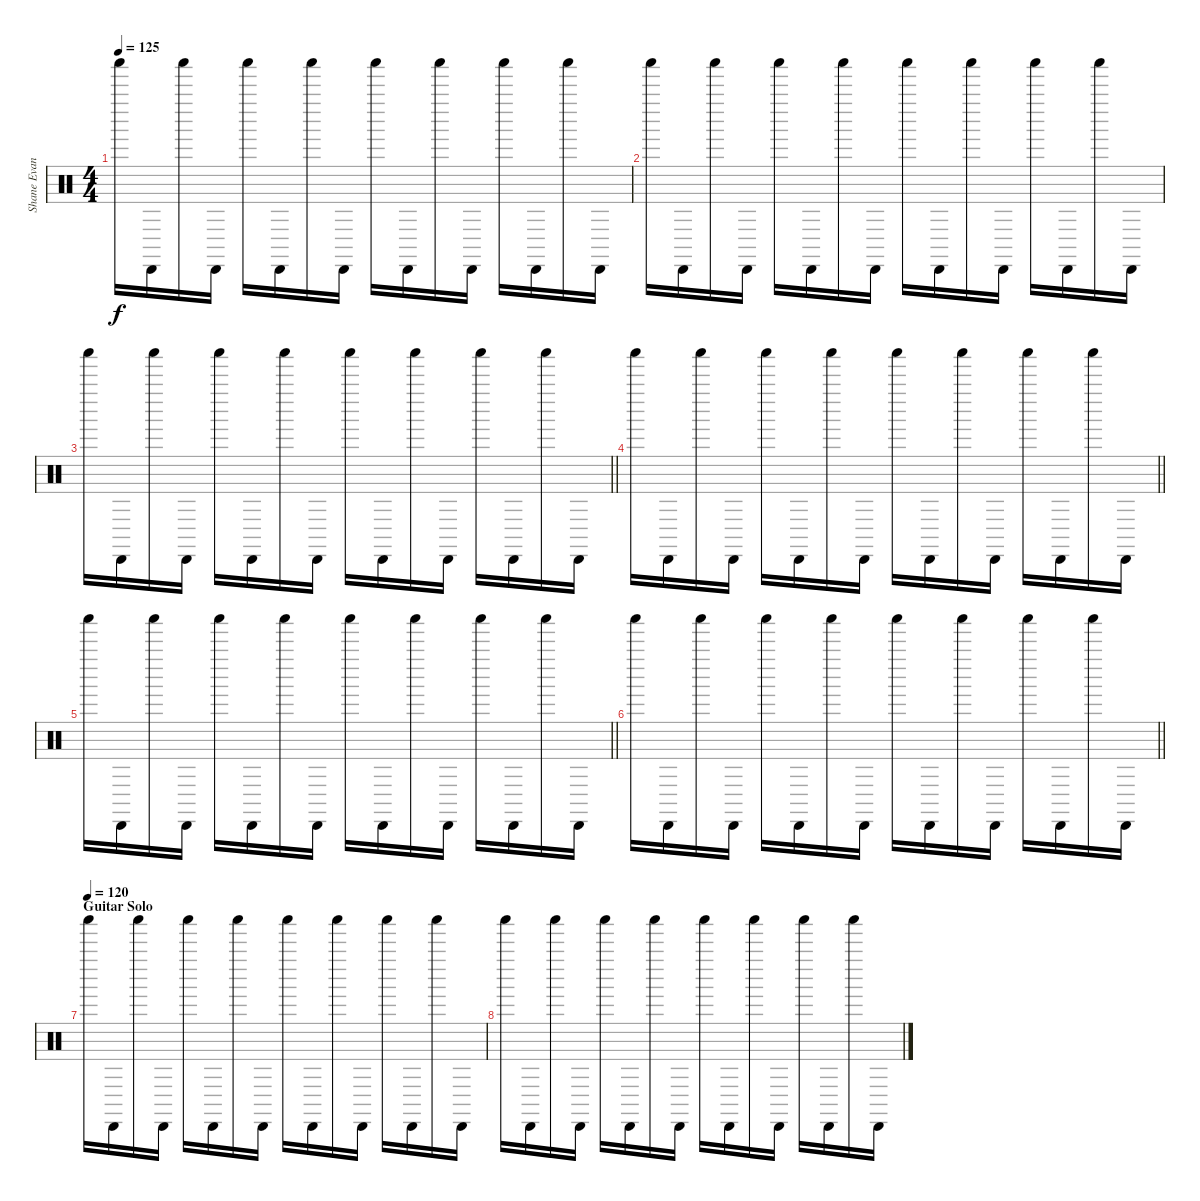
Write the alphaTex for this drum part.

\track ("Shane Evans" "Shane Evan") {instrument percussion}
\staff {score}
\articulation defaults
\ts (4 4)
\tempo 125
\clef neutral
\ks c "Shaker (hit)".16{dy f} "Cabasa (hit)".16 "Shaker (hit)".16 "Cabasa (hit)".16 "Shaker (hit)".16 "Cabasa (hit)".16 "Shaker (hit)".16 "Cabasa (hit)".16 "Shaker (hit)".16 "Cabasa (hit)".16 "Shaker (hit)".16 "Cabasa (hit)".16 "Shaker (hit)".16 "Cabasa (hit)".16 "Shaker (hit)".16 "Cabasa (hit)".16
|
"Shaker (hit)".16 "Cabasa (hit)".16 "Shaker (hit)".16 "Cabasa (hit)".16 "Shaker (hit)".16 "Cabasa (hit)".16 "Shaker (hit)".16 "Cabasa (hit)".16 "Shaker (hit)".16 "Cabasa (hit)".16 "Shaker (hit)".16 "Cabasa (hit)".16 "Shaker (hit)".16 "Cabasa (hit)".16 "Shaker (hit)".16 "Cabasa (hit)".16 |
\barLineRight lightlight "Shaker (hit)".16 "Cabasa (hit)".16 "Shaker (hit)".16 "Cabasa (hit)".16 "Shaker (hit)".16 "Cabasa (hit)".16 "Shaker (hit)".16 "Cabasa (hit)".16 "Shaker (hit)".16 "Cabasa (hit)".16 "Shaker (hit)".16 "Cabasa (hit)".16 "Shaker (hit)".16 "Cabasa (hit)".16 "Shaker (hit)".16 "Cabasa (hit)".16
|
\barLineRight lightlight "Shaker (hit)".16 "Cabasa (hit)".16 "Shaker (hit)".16 "Cabasa (hit)".16 "Shaker (hit)".16 "Cabasa (hit)".16 "Shaker (hit)".16 "Cabasa (hit)".16 "Shaker (hit)".16 "Cabasa (hit)".16 "Shaker (hit)".16 "Cabasa (hit)".16 "Shaker (hit)".16 "Cabasa (hit)".16 "Shaker (hit)".16 "Cabasa (hit)".16
|
\barLineRight lightlight "Shaker (hit)".16 "Cabasa (hit)".16 "Shaker (hit)".16 "Cabasa (hit)".16 "Shaker (hit)".16 "Cabasa (hit)".16 "Shaker (hit)".16 "Cabasa (hit)".16 "Shaker (hit)".16 "Cabasa (hit)".16 "Shaker (hit)".16 "Cabasa (hit)".16 "Shaker (hit)".16 "Cabasa (hit)".16 "Shaker (hit)".16 "Cabasa (hit)".16
|
\barLineRight lightlight "Shaker (hit)".16 "Cabasa (hit)".16 "Shaker (hit)".16 "Cabasa (hit)".16 "Shaker (hit)".16 "Cabasa (hit)".16 "Shaker (hit)".16 "Cabasa (hit)".16 "Shaker (hit)".16 "Cabasa (hit)".16 "Shaker (hit)".16 "Cabasa (hit)".16 "Shaker (hit)".16 "Cabasa (hit)".16 "Shaker (hit)".16 "Cabasa (hit)".16
|
\section ("" "Guitar Solo")
\tempo (120)
"Shaker (hit)".16 "Cabasa (hit)".16 "Shaker (hit)".16 "Cabasa (hit)".16 "Shaker (hit)".16 "Cabasa (hit)".16 "Shaker (hit)".16 "Cabasa (hit)".16 "Shaker (hit)".16 "Cabasa (hit)".16 "Shaker (hit)".16 "Cabasa (hit)".16 "Shaker (hit)".16 "Cabasa (hit)".16 "Shaker (hit)".16 "Cabasa (hit)".16 |
"Shaker (hit)".16 "Cabasa (hit)".16 "Shaker (hit)".16 "Cabasa (hit)".16 "Shaker (hit)".16 "Cabasa (hit)".16 "Shaker (hit)".16 "Cabasa (hit)".16 "Shaker (hit)".16 "Cabasa (hit)".16 "Shaker (hit)".16 "Cabasa (hit)".16 "Shaker (hit)".16 "Cabasa (hit)".16 "Shaker (hit)".16 "Cabasa (hit)".16
